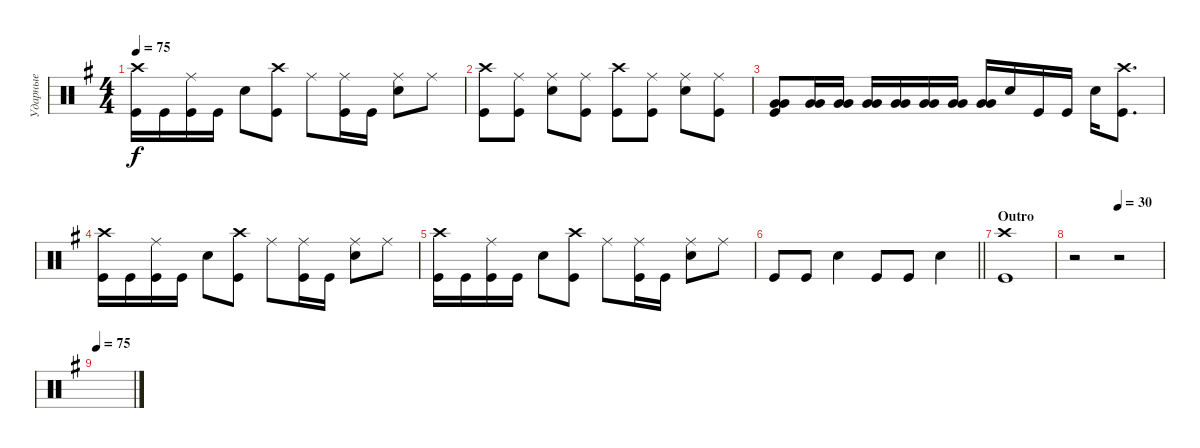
\track ("Ударные" "Ударные") {instrument percussion}
\staff {score}
\articulation defaults
\ts (4 4)
\tempo 75
\clef neutral
\ks eminor
("Kick (hit)" "Crash high (hit)").16{dy f} "Kick (hit)".16 ("Kick (hit)" "Ride (middle)").16 "Kick (hit)".16 "Snare (hit) 2".8 ("Kick (hit)" "Crash high (hit)").8 "Ride (middle)".8 ("Kick (hit)" "Ride (middle)").16 "Kick (hit)".16 ("Snare (hit) 2" "Ride (middle)").8 "Ride (middle)".8 |
("Kick (hit)" "Crash high (hit)").8 ("Kick (hit)" "Ride (middle)").8 ("Snare (hit) 2" "Ride (middle)").8 ("Kick (hit)" "Ride (middle)").8 ("Kick (hit)" "Crash high (hit)").8 ("Kick (hit)" "Ride (middle)").8 ("Snare (hit) 2" "Ride (middle)").8 ("Kick (hit)" "Ride (middle)").8 |
("Kick (hit)" "Very Low Tom (hit)" "Very Low Tom (hit)").8{bd 60} ("Very Low Tom (hit)" "Very Low Tom (hit)").16{bd 60} ("Very Low Tom (hit)" "Very Low Tom (hit)").16{bd 60} ("Very Low Tom (hit)" "Very Low Tom (hit)").16{bd 60} ("Very Low Tom (hit)" "Very Low Tom (hit)").16{bd 60} ("Very Low Tom (hit)" "Very Low Tom (hit)").16{bd 60} ("Very Low Tom (hit)" "Very Low Tom (hit)").16{bd 60} ("Very Low Tom (hit)" "Very Low Tom (hit)").16{bd 60} "Snare (hit) 2".16 "Kick (hit)".16 "Kick (hit)".16 "Snare (hit) 2".16 ("Kick (hit)" "Crash high (hit)").8{d} |
("Kick (hit)" "Crash high (hit)").16 "Kick (hit)".16 ("Kick (hit)" "Ride (middle)").16 "Kick (hit)".16 "Snare (hit) 2".8 ("Kick (hit)" "Crash high (hit)").8 "Ride (middle)".8 ("Kick (hit)" "Ride (middle)").16 "Kick (hit)".16 ("Snare (hit) 2" "Ride (middle)").8 "Ride (middle)".8 |
("Kick (hit)" "Crash high (hit)").16 "Kick (hit)".16 ("Kick (hit)" "Ride (middle)").16 "Kick (hit)".16 "Snare (hit) 2".8 ("Kick (hit)" "Crash high (hit)").8 "Ride (middle)".8 ("Kick (hit)" "Ride (middle)").16 "Kick (hit)".16 ("Snare (hit) 2" "Ride (middle)").8 "Ride (middle)".8 |
\barLineRight lightlight "Kick (hit)".8 "Kick (hit)".8 "Snare (hit) 2".4 "Kick (hit)".8 "Kick (hit)".8 "Snare (hit) 2".4
|
\section ("" "Outro")
("Kick (hit)" "Crash high (hit)").1 |
\tempo (30 0.5)
r.2 r.2 |
\tempo 75
